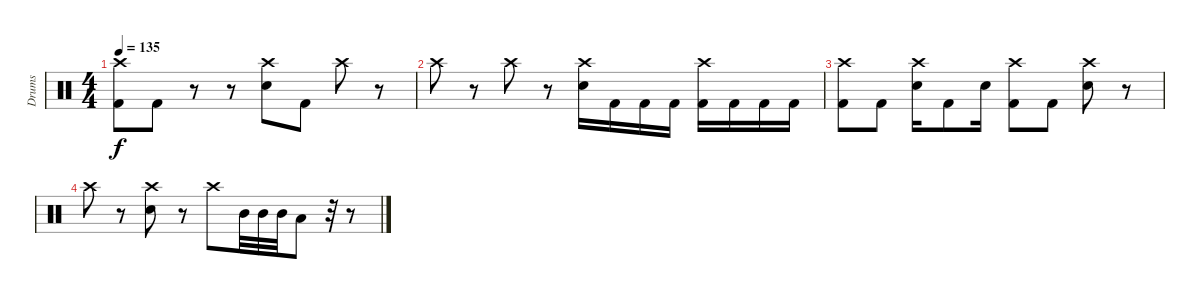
\track ("Drums" "Drums") {instrument percussion}
\staff {score}
\articulation defaults
\ts (4 4)
\tempo 135
\clef neutral
\ks c
("Crash high (hit)" "Kick (hit) 2").8{dy f} "Kick (hit) 2".8 r.8 r.8 ("Crash high (hit)" "Electric Snare (hit)").8 "Kick (hit) 2".8 "Crash high (hit)".8 r.8 |
"Crash high (hit)".8 r.8 "Crash high (hit)".8 r.8 ("Crash high (hit)" "Electric Snare (hit)").16 "Kick (hit) 2".16 "Kick (hit) 2".16 "Kick (hit) 2".16 ("Crash high (hit)" "Kick (hit) 2").16 "Kick (hit) 2".16 "Kick (hit) 2".16 "Kick (hit) 2".16 |
("Crash high (hit)" "Kick (hit) 2").8 "Kick (hit) 2".8 ("Crash high (hit)" "Electric Snare (hit)").16 "Kick (hit) 2".8 "Electric Snare (hit)".16 ("Crash high (hit)" "Kick (hit) 2").8 "Kick (hit) 2".8 ("Crash high (hit)" "Electric Snare (hit)").8 r.8 |
"Crash high (hit)".8 r.8 ("Crash high (hit)" "Electric Snare (hit)").8 r.8 "Crash high (hit)".8 "Mid Tom (hit)".32 "Mid Tom (hit)".32 "Mid Tom (hit)".32 "Low Floor Tom (hit)".8 r.32 r.8
